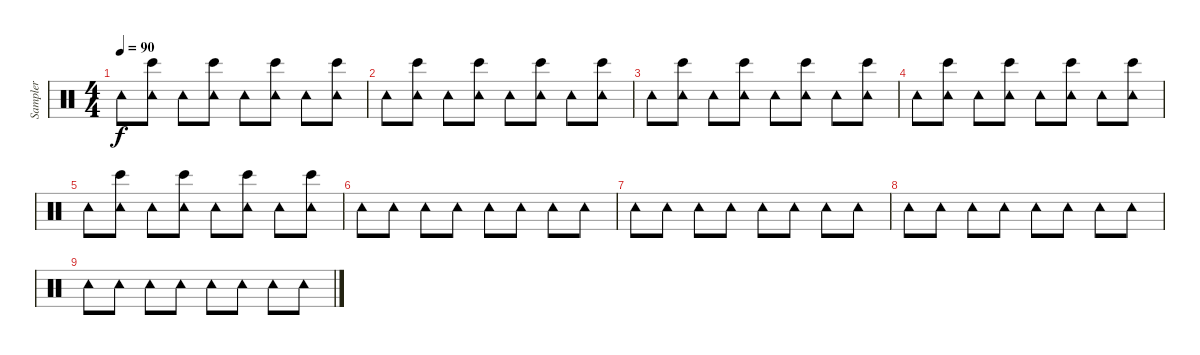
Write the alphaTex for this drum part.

\track ("Sampler" "Sampler") {instrument percussion}
\staff {score}
\articulation defaults
\ts (4 4)
\tempo 90
\clef neutral
\ks c "Tambourine (hit)".8{dy f}
("Tambourine (hit)" "Bongo High (hit)").8 "Tambourine (hit)".8 ("Tambourine (hit)" "Bongo High (hit)").8 "Tambourine (hit)".8 ("Tambourine (hit)" "Bongo High (hit)").8 "Tambourine (hit)".8 ("Tambourine (hit)" "Bongo High (hit)").8 |
"Tambourine (hit)".8 ("Tambourine (hit)" "Bongo High (hit)").8 "Tambourine (hit)".8 ("Tambourine (hit)" "Bongo High (hit)").8 "Tambourine (hit)".8 ("Tambourine (hit)" "Bongo High (hit)").8 "Tambourine (hit)".8 ("Tambourine (hit)" "Bongo High (hit)").8 |
"Tambourine (hit)".8 ("Tambourine (hit)" "Bongo High (hit)").8 "Tambourine (hit)".8 ("Tambourine (hit)" "Bongo High (hit)").8 "Tambourine (hit)".8 ("Tambourine (hit)" "Bongo High (hit)").8 "Tambourine (hit)".8 ("Tambourine (hit)" "Bongo High (hit)").8 |
"Tambourine (hit)".8 ("Tambourine (hit)" "Bongo High (hit)").8 "Tambourine (hit)".8 ("Tambourine (hit)" "Bongo High (hit)").8 "Tambourine (hit)".8 ("Tambourine (hit)" "Bongo High (hit)").8 "Tambourine (hit)".8 ("Tambourine (hit)" "Bongo High (hit)").8 |
"Tambourine (hit)".8 ("Tambourine (hit)" "Bongo High (hit)").8 "Tambourine (hit)".8 ("Tambourine (hit)" "Bongo High (hit)").8 "Tambourine (hit)".8 ("Tambourine (hit)" "Bongo High (hit)").8 "Tambourine (hit)".8 ("Tambourine (hit)" "Bongo High (hit)").8 |
"Tambourine (hit)".8 "Tambourine (hit)".8 "Tambourine (hit)".8 "Tambourine (hit)".8 "Tambourine (hit)".8 "Tambourine (hit)".8 "Tambourine (hit)".8 "Tambourine (hit)".8 |
"Tambourine (hit)".8 "Tambourine (hit)".8 "Tambourine (hit)".8 "Tambourine (hit)".8 "Tambourine (hit)".8 "Tambourine (hit)".8 "Tambourine (hit)".8 "Tambourine (hit)".8 |
"Tambourine (hit)".8 "Tambourine (hit)".8 "Tambourine (hit)".8 "Tambourine (hit)".8 "Tambourine (hit)".8 "Tambourine (hit)".8 "Tambourine (hit)".8 "Tambourine (hit)".8 |
"Tambourine (hit)".8 "Tambourine (hit)".8 "Tambourine (hit)".8 "Tambourine (hit)".8 "Tambourine (hit)".8 "Tambourine (hit)".8 "Tambourine (hit)".8 "Tambourine (hit)".8
